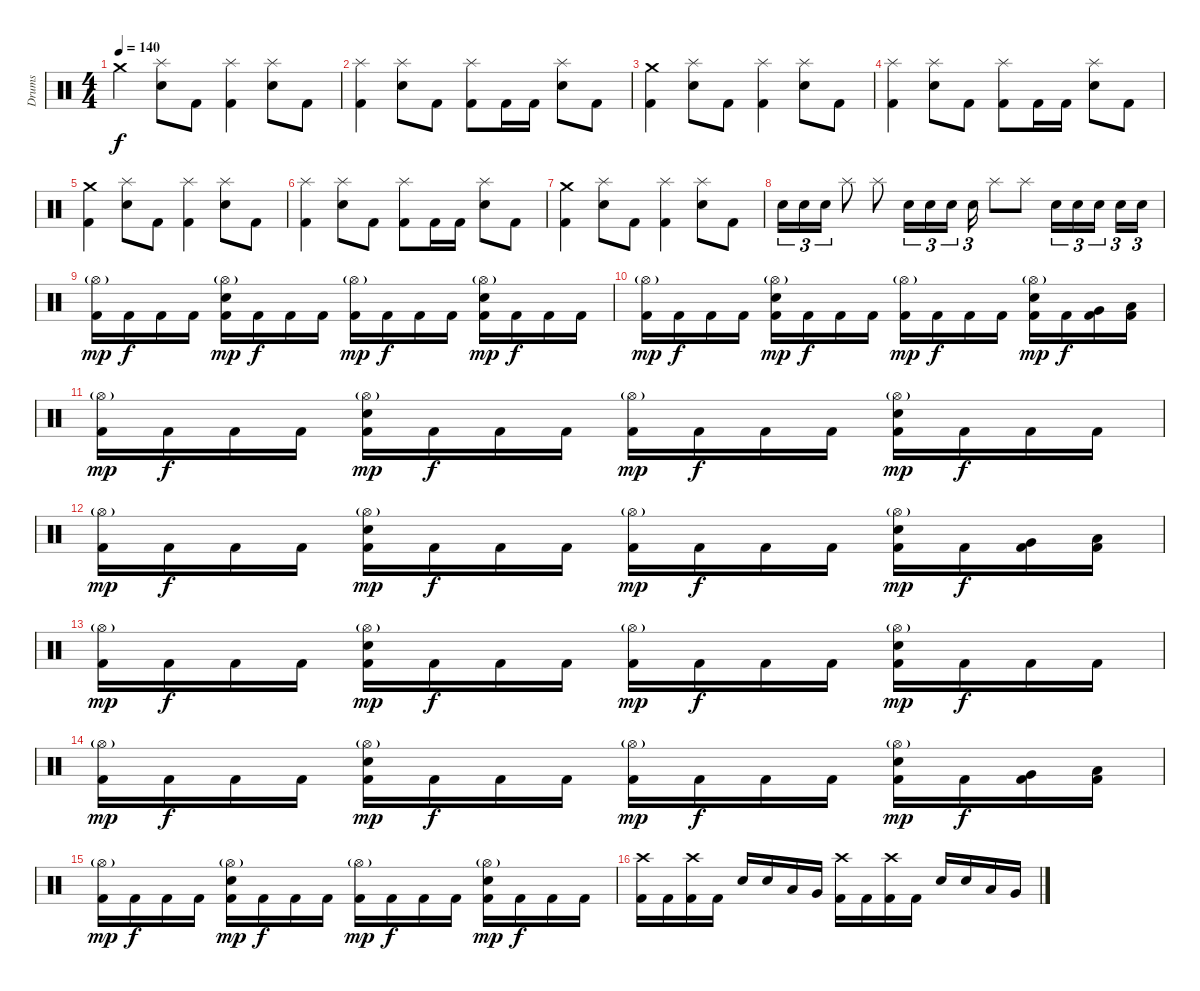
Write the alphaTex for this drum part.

\track ("Drums" "Drums") {instrument percussion}
\staff {score}
\articulation defaults
\ts (4 4)
\tempo 140
\clef neutral
\ks c "Crash medium (hit)".4{dy f}
("Splash (hit)" "Electric Snare (hit)").8 "Kick (hit) 2".8 ("Splash (hit)" "Kick (hit) 2").4 ("Splash (hit)" "Electric Snare (hit)").8 "Kick (hit) 2".8 |
("Splash (hit)" "Kick (hit) 2").4 ("Splash (hit)" "Electric Snare (hit)").8 "Kick (hit) 2".8 ("Splash (hit)" "Kick (hit) 2").8 "Kick (hit) 2".16 "Kick (hit) 2".16 ("Splash (hit)" "Electric Snare (hit)").8 "Kick (hit) 2".8 |
("Crash medium (hit)" "Kick (hit) 2").4 ("Splash (hit)" "Electric Snare (hit)").8 "Kick (hit) 2".8 ("Splash (hit)" "Kick (hit) 2").4 ("Splash (hit)" "Electric Snare (hit)").8 "Kick (hit) 2".8 |
("Splash (hit)" "Kick (hit) 2").4 ("Splash (hit)" "Electric Snare (hit)").8 "Kick (hit) 2".8 ("Splash (hit)" "Kick (hit) 2").8 "Kick (hit) 2".16 "Kick (hit) 2".16 ("Splash (hit)" "Electric Snare (hit)").8 "Kick (hit) 2".8 |
("Crash medium (hit)" "Kick (hit) 2").4 ("Splash (hit)" "Electric Snare (hit)").8 "Kick (hit) 2".8 ("Splash (hit)" "Kick (hit) 2").4 ("Splash (hit)" "Electric Snare (hit)").8 "Kick (hit) 2".8 |
("Splash (hit)" "Kick (hit) 2").4 ("Splash (hit)" "Electric Snare (hit)").8 "Kick (hit) 2".8 ("Splash (hit)" "Kick (hit) 2").8 "Kick (hit) 2".16 "Kick (hit) 2".16 ("Splash (hit)" "Electric Snare (hit)").8 "Kick (hit) 2".8 |
("Crash medium (hit)" "Kick (hit) 2").4 ("Splash (hit)" "Electric Snare (hit)").8 "Kick (hit) 2".8 ("Splash (hit)" "Kick (hit) 2").4 ("Splash (hit)" "Electric Snare (hit)").8 "Kick (hit) 2".8 |
"Electric Snare (hit)".16{tu (3 2)} "Electric Snare (hit)".16{tu (3 2)} "Electric Snare (hit)".16{tu (3 2)} "Splash (hit)".8 "Splash (hit)".8 "Electric Snare (hit)".16{tu (3 2)} "Electric Snare (hit)".16{tu (3 2)} "Electric Snare (hit)".16{tu (3 2)} "Electric Snare (hit)".16{tu (3 2)} "Splash (hit)".8 "Splash (hit)".8 "Electric Snare (hit)".16{tu (3 2)} "Electric Snare (hit)".16{tu (3 2)} "Electric Snare (hit)".16{tu (3 2)} "Electric Snare (hit)".16{tu (3 2)} "Electric Snare (hit)".16{tu (3 2)} |
("Hi-Hat (open)"{g} "Kick (hit) 2").16{dy mp} "Kick (hit) 2".16{dy f} "Kick (hit) 2".16 "Kick (hit) 2".16 ("Hi-Hat (open)"{g} "Electric Snare (hit)" "Kick (hit) 2").16{dy mp} "Kick (hit) 2".16{dy f} "Kick (hit) 2".16 "Kick (hit) 2".16 ("Hi-Hat (open)"{g} "Kick (hit) 2").16{dy mp} "Kick (hit) 2".16{dy f} "Kick (hit) 2".16 "Kick (hit) 2".16 ("Hi-Hat (open)"{g} "Electric Snare (hit)" "Kick (hit) 2").16{dy mp} "Kick (hit) 2".16{dy f} "Kick (hit) 2".16 "Kick (hit) 2".16 |
("Hi-Hat (open)"{g} "Kick (hit) 2").16{dy mp} "Kick (hit) 2".16{dy f} "Kick (hit) 2".16 "Kick (hit) 2".16 ("Hi-Hat (open)"{g} "Electric Snare (hit)" "Kick (hit) 2").16{dy mp} "Kick (hit) 2".16{dy f} "Kick (hit) 2".16 "Kick (hit) 2".16 ("Hi-Hat (open)"{g} "Kick (hit) 2").16{dy mp} "Kick (hit) 2".16{dy f} "Kick (hit) 2".16 "Kick (hit) 2".16 ("Hi-Hat (open)"{g} "Electric Snare (hit)" "Kick (hit) 2").16{dy mp} "Kick (hit) 2".16{dy f} ("Very Low Tom (hit)" "Kick (hit) 2").16 ("Low Floor Tom (hit)" "Kick (hit) 2").16 |
("Hi-Hat (open)"{g} "Kick (hit) 2").16{dy mp} "Kick (hit) 2".16{dy f} "Kick (hit) 2".16 "Kick (hit) 2".16 ("Hi-Hat (open)"{g} "Electric Snare (hit)" "Kick (hit) 2").16{dy mp} "Kick (hit) 2".16{dy f} "Kick (hit) 2".16 "Kick (hit) 2".16 ("Hi-Hat (open)"{g} "Kick (hit) 2").16{dy mp} "Kick (hit) 2".16{dy f} "Kick (hit) 2".16 "Kick (hit) 2".16 ("Hi-Hat (open)"{g} "Electric Snare (hit)" "Kick (hit) 2").16{dy mp} "Kick (hit) 2".16{dy f} "Kick (hit) 2".16 "Kick (hit) 2".16 |
("Hi-Hat (open)"{g} "Kick (hit) 2").16{dy mp} "Kick (hit) 2".16{dy f} "Kick (hit) 2".16 "Kick (hit) 2".16 ("Hi-Hat (open)"{g} "Electric Snare (hit)" "Kick (hit) 2").16{dy mp} "Kick (hit) 2".16{dy f} "Kick (hit) 2".16 "Kick (hit) 2".16 ("Hi-Hat (open)"{g} "Kick (hit) 2").16{dy mp} "Kick (hit) 2".16{dy f} "Kick (hit) 2".16 "Kick (hit) 2".16 ("Hi-Hat (open)"{g} "Electric Snare (hit)" "Kick (hit) 2").16{dy mp} "Kick (hit) 2".16{dy f} ("Very Low Tom (hit)" "Kick (hit) 2").16 ("Low Floor Tom (hit)" "Kick (hit) 2").16 |
("Hi-Hat (open)"{g} "Kick (hit) 2").16{dy mp} "Kick (hit) 2".16{dy f} "Kick (hit) 2".16 "Kick (hit) 2".16 ("Hi-Hat (open)"{g} "Electric Snare (hit)" "Kick (hit) 2").16{dy mp} "Kick (hit) 2".16{dy f} "Kick (hit) 2".16 "Kick (hit) 2".16 ("Hi-Hat (open)"{g} "Kick (hit) 2").16{dy mp} "Kick (hit) 2".16{dy f} "Kick (hit) 2".16 "Kick (hit) 2".16 ("Hi-Hat (open)"{g} "Electric Snare (hit)" "Kick (hit) 2").16{dy mp} "Kick (hit) 2".16{dy f} "Kick (hit) 2".16 "Kick (hit) 2".16 |
("Hi-Hat (open)"{g} "Kick (hit) 2").16{dy mp} "Kick (hit) 2".16{dy f} "Kick (hit) 2".16 "Kick (hit) 2".16 ("Hi-Hat (open)"{g} "Electric Snare (hit)" "Kick (hit) 2").16{dy mp} "Kick (hit) 2".16{dy f} "Kick (hit) 2".16 "Kick (hit) 2".16 ("Hi-Hat (open)"{g} "Kick (hit) 2").16{dy mp} "Kick (hit) 2".16{dy f} "Kick (hit) 2".16 "Kick (hit) 2".16 ("Hi-Hat (open)"{g} "Electric Snare (hit)" "Kick (hit) 2").16{dy mp} "Kick (hit) 2".16{dy f} ("Very Low Tom (hit)" "Kick (hit) 2").16 ("Low Floor Tom (hit)" "Kick (hit) 2").16 |
("Hi-Hat (open)"{g} "Kick (hit) 2").16{dy mp} "Kick (hit) 2".16{dy f} "Kick (hit) 2".16 "Kick (hit) 2".16 ("Hi-Hat (open)"{g} "Electric Snare (hit)" "Kick (hit) 2").16{dy mp} "Kick (hit) 2".16{dy f} "Kick (hit) 2".16 "Kick (hit) 2".16 ("Hi-Hat (open)"{g} "Kick (hit) 2").16{dy mp} "Kick (hit) 2".16{dy f} "Kick (hit) 2".16 "Kick (hit) 2".16 ("Hi-Hat (open)"{g} "Electric Snare (hit)" "Kick (hit) 2").16{dy mp} "Kick (hit) 2".16{dy f} "Kick (hit) 2".16 "Kick (hit) 2".16 |
("Crash high (hit)" "Kick (hit) 2").16 "Kick (hit) 2".16 ("Crash high (hit)" "Kick (hit) 2").16 "Kick (hit) 2".16 "Electric Snare (hit)".16 "Electric Snare (hit)".16 "Low Tom (hit)".16 "Very Low Tom (hit)".16 ("Crash high (hit)" "Kick (hit) 2").16 "Kick (hit) 2".16 ("Crash high (hit)" "Kick (hit) 2").16 "Kick (hit) 2".16 "Electric Snare (hit)".16 "Electric Snare (hit)".16 "Low Tom (hit)".16 "Very Low Tom (hit)".16
